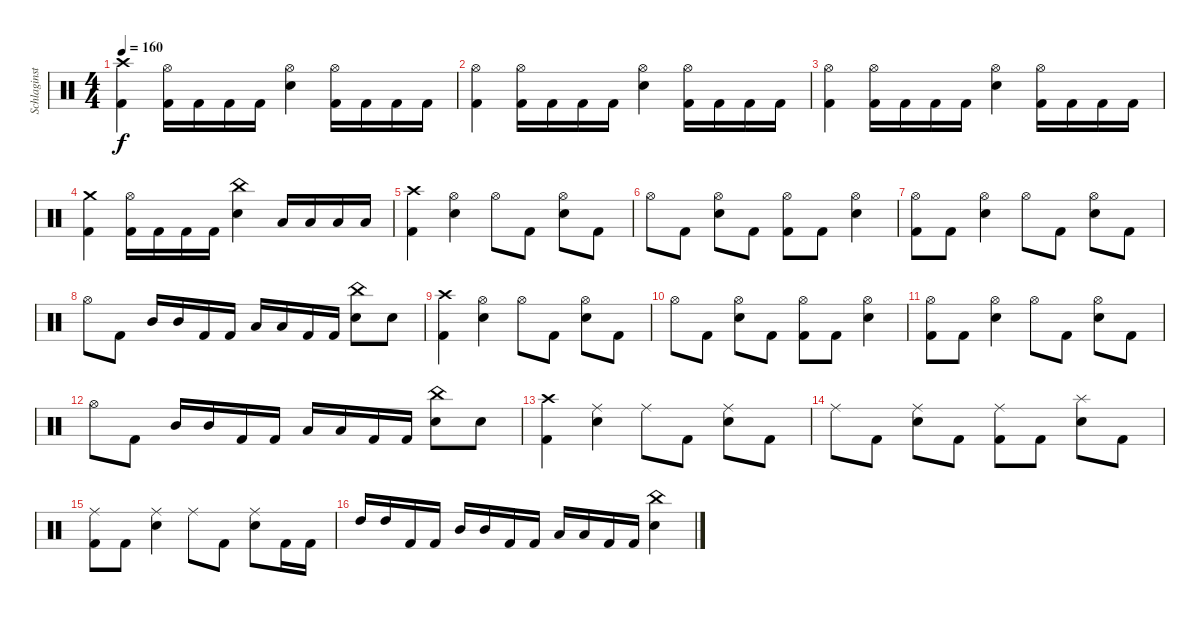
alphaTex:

\track ("Schlaginstrumente - Auswahl" "Schlaginst") {instrument percussion}
\staff {score}
\articulation defaults
\ts (4 4)
\tempo 160
\clef neutral
\ks c
("Crash high (hit)" "Kick (hit) 2").4{dy f} ("Hi-Hat (open)" "Kick (hit) 2").16 "Kick (hit) 2".16 "Kick (hit) 2".16 "Kick (hit) 2".16 ("Hi-Hat (open)" "Snare (hit) 2").4 ("Hi-Hat (open)" "Kick (hit) 2").16 "Kick (hit) 2".16 "Kick (hit) 2".16 "Kick (hit) 2".16 |
("Hi-Hat (open)" "Kick (hit) 2").4 ("Hi-Hat (open)" "Kick (hit) 2").16 "Kick (hit) 2".16 "Kick (hit) 2".16 "Kick (hit) 2".16 ("Hi-Hat (open)" "Snare (hit) 2").4 ("Hi-Hat (open)" "Kick (hit) 2").16 "Kick (hit) 2".16 "Kick (hit) 2".16 "Kick (hit) 2".16 |
("Hi-Hat (open)" "Kick (hit) 2").4 ("Hi-Hat (open)" "Kick (hit) 2").16 "Kick (hit) 2".16 "Kick (hit) 2".16 "Kick (hit) 2".16 ("Hi-Hat (open)" "Snare (hit) 2").4 ("Hi-Hat (open)" "Kick (hit) 2").16 "Kick (hit) 2".16 "Kick (hit) 2".16 "Kick (hit) 2".16 |
("Crash medium (hit)" "Kick (hit) 2").4 ("Hi-Hat (open)" "Kick (hit) 2").16 "Kick (hit) 2".16 "Kick (hit) 2".16 "Kick (hit) 2".16 ("China (hit)" "Snare (hit) 2").4 "Low Tom (hit)".16 "Low Tom (hit)".16 "Low Tom (hit)".16 "Low Tom (hit)".16 |
("Crash high (hit)" "Kick (hit) 2").4 ("Hi-Hat (open)" "Snare (hit) 2").4 "Hi-Hat (open)".8 "Kick (hit) 2".8 ("Hi-Hat (open)" "Snare (hit) 2").8 "Kick (hit) 2".8 |
"Hi-Hat (open)".8 "Kick (hit) 2".8 ("Hi-Hat (open)" "Snare (hit) 2").8 "Kick (hit) 2".8 ("Hi-Hat (open)" "Kick (hit) 2").8 "Kick (hit) 2".8 ("Hi-Hat (open)" "Snare (hit) 2").4 |
("Hi-Hat (open)" "Kick (hit) 2").8 "Kick (hit) 2".8 ("Hi-Hat (open)" "Snare (hit) 2").4 "Hi-Hat (open)".8 "Kick (hit) 2".8 ("Hi-Hat (open)" "Snare (hit) 2").8 "Kick (hit) 2".8 |
"Hi-Hat (open)".8 "Kick (hit) 2".8 "Mid Tom (hit)".16 "Mid Tom (hit)".16 "Kick (hit) 2".16 "Kick (hit) 2".16 "Low Tom (hit)".16 "Low Tom (hit)".16 "Kick (hit) 2".16 "Kick (hit) 2".16 ("China (hit)" "Snare (hit) 2").8 "Snare (hit) 2".8 |
("Crash high (hit)" "Kick (hit) 2").4 ("Hi-Hat (open)" "Snare (hit) 2").4 "Hi-Hat (open)".8 "Kick (hit) 2".8 ("Hi-Hat (open)" "Snare (hit) 2").8 "Kick (hit) 2".8 |
"Hi-Hat (open)".8 "Kick (hit) 2".8 ("Hi-Hat (open)" "Snare (hit) 2").8 "Kick (hit) 2".8 ("Hi-Hat (open)" "Kick (hit) 2").8 "Kick (hit) 2".8 ("Hi-Hat (open)" "Snare (hit) 2").4 |
("Hi-Hat (open)" "Kick (hit) 2").8 "Kick (hit) 2".8 ("Hi-Hat (open)" "Snare (hit) 2").4 "Hi-Hat (open)".8 "Kick (hit) 2".8 ("Hi-Hat (open)" "Snare (hit) 2").8 "Kick (hit) 2".8 |
"Hi-Hat (open)".8 "Kick (hit) 2".8 "Mid Tom (hit)".16 "Mid Tom (hit)".16 "Kick (hit) 2".16 "Kick (hit) 2".16 "Low Tom (hit)".16 "Low Tom (hit)".16 "Kick (hit) 2".16 "Kick (hit) 2".16 ("China (hit)" "Snare (hit) 2").8 "Snare (hit) 2".8 |
("Crash high (hit)" "Kick (hit) 2").4 ("Ride (middle)" "Snare (hit) 2").4 "Ride (middle)".8 "Kick (hit) 2".8 ("Ride (middle)" "Snare (hit) 2").8 "Kick (hit) 2".8 |
"Ride (middle)".8 "Kick (hit) 2".8 ("Ride (middle)" "Snare (hit) 2").8 "Kick (hit) 2".8 ("Ride (middle)" "Kick (hit) 2").8 "Kick (hit) 2".8 ("Splash (hit)" "Snare (hit) 2").8 "Kick (hit) 2".8 |
("Ride (middle)" "Kick (hit) 2").8 "Kick (hit) 2".8 ("Ride (middle)" "Snare (hit) 2").4 "Ride (middle)".8 "Kick (hit) 2".8 ("Ride (middle)" "Snare (hit) 2").8 "Kick (hit) 2".16 "Kick (hit) 2".16 |
"High Tom (hit)".16 "High Tom (hit)".16 "Kick (hit) 2".16 "Kick (hit) 2".16 "Mid Tom (hit)".16 "Mid Tom (hit)".16 "Kick (hit) 2".16 "Kick (hit) 2".16 "Low Tom (hit)".16 "Low Tom (hit)".16 "Kick (hit) 2".16 "Kick (hit) 2".16 ("China (hit)" "Snare (hit) 2").4
